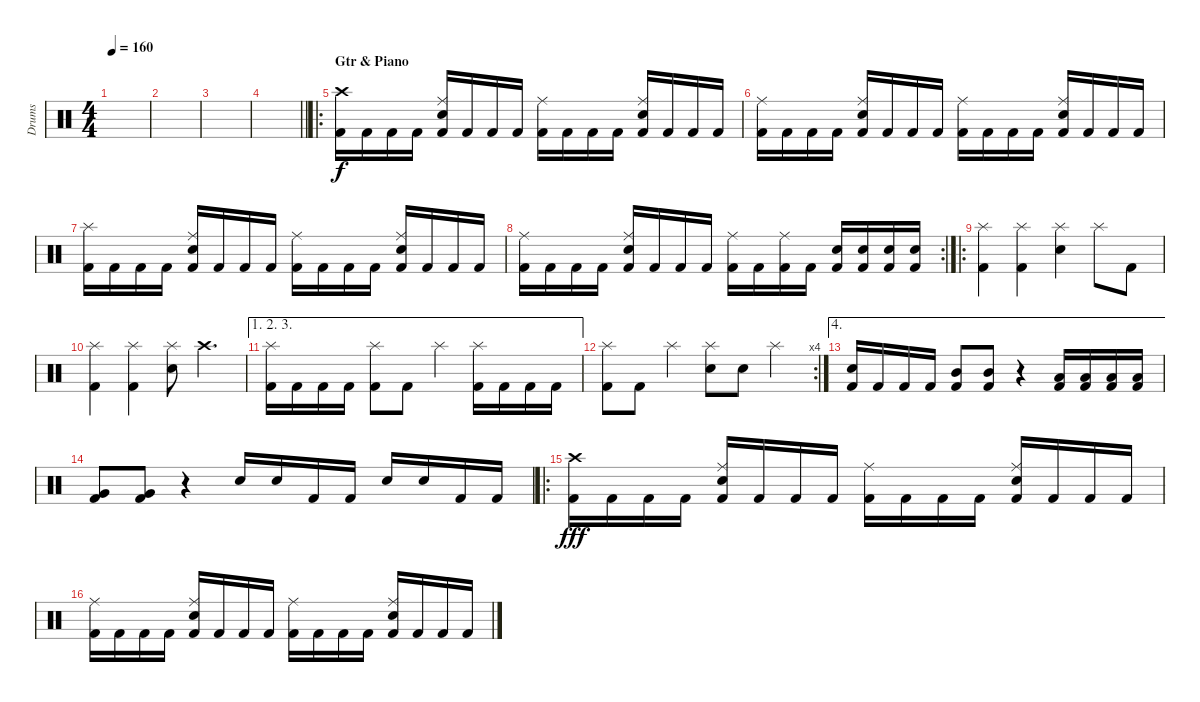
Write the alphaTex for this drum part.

\track ("Drums" "Drums") {instrument percussion}
\staff {score}
\articulation defaults
\ts (4 4)
\tempo 160
\clef neutral
\ks c
|
|
|
\barLineRight lightlight
|
\ro
\section ("" "Gtr & Piano")
("Crash high (hit)" "Kick (hit) 2").16 "Kick (hit) 2".16 "Kick (hit) 2".16 "Kick (hit) 2".16 ("Ride (middle)" "Electric Snare (hit)" "Kick (hit) 2").16 "Kick (hit) 2".16 "Kick (hit) 2".16 "Kick (hit) 2".16 ("Ride (middle)" "Kick (hit) 2").16 "Kick (hit) 2".16 "Kick (hit) 2".16 "Kick (hit) 2".16 ("Ride (middle)" "Electric Snare (hit)" "Kick (hit) 2").16 "Kick (hit) 2".16 "Kick (hit) 2".16 "Kick (hit) 2".16 |
("Ride (middle)" "Kick (hit) 2").16 "Kick (hit) 2".16 "Kick (hit) 2".16 "Kick (hit) 2".16 ("Ride (middle)" "Electric Snare (hit)" "Kick (hit) 2").16 "Kick (hit) 2".16 "Kick (hit) 2".16 "Kick (hit) 2".16 ("Ride (middle)" "Kick (hit) 2").16 "Kick (hit) 2".16 "Kick (hit) 2".16 "Kick (hit) 2".16 ("Ride (middle)" "Electric Snare (hit)" "Kick (hit) 2").16 "Kick (hit) 2".16 "Kick (hit) 2".16 "Kick (hit) 2".16 |
("Splash (hit)" "Kick (hit) 2").16 "Kick (hit) 2".16 "Kick (hit) 2".16 "Kick (hit) 2".16 ("Ride (middle)" "Electric Snare (hit)" "Kick (hit) 2").16 "Kick (hit) 2".16 "Kick (hit) 2".16 "Kick (hit) 2".16 ("Ride (middle)" "Kick (hit) 2").16 "Kick (hit) 2".16 "Kick (hit) 2".16 "Kick (hit) 2".16 ("Ride (middle)" "Electric Snare (hit)" "Kick (hit) 2").16 "Kick (hit) 2".16 "Kick (hit) 2".16 "Kick (hit) 2".16 |
\rc 2
("Ride (middle)" "Kick (hit) 2").16 "Kick (hit) 2".16 "Kick (hit) 2".16 "Kick (hit) 2".16 ("Ride (middle)" "Electric Snare (hit)" "Kick (hit) 2").16 "Kick (hit) 2".16 "Kick (hit) 2".16 "Kick (hit) 2".16 ("Ride (middle)" "Kick (hit) 2").16 "Kick (hit) 2".16 ("Ride (middle)" "Kick (hit) 2").16 "Kick (hit) 2".16 ("Electric Snare (hit)" "Kick (hit) 2").16 ("Electric Snare (hit)" "Kick (hit) 2").16 ("Electric Snare (hit)" "Kick (hit) 2").16 ("Electric Snare (hit)" "Kick (hit) 2").16 |
\ro
("Splash (hit)" "Kick (hit) 2").4{dy f} ("Splash (hit)" "Kick (hit) 2").4 ("Splash (hit)" "Electric Snare (hit)").4 "Splash (hit)".8 "Kick (hit) 2".8 |
("Splash (hit)" "Kick (hit) 2").4 ("Splash (hit)" "Kick (hit) 2").4 ("Splash (hit)" "Electric Snare (hit)").8 "Crash high (hit)".4{d} |
\ae (1 2 3)
("Splash (hit)" "Kick (hit) 2").16 "Kick (hit) 2".16 "Kick (hit) 2".16 "Kick (hit) 2".16 ("Splash (hit)" "Kick (hit) 2").8 "Kick (hit) 2".8 "Splash (hit)".4 ("Splash (hit)" "Kick (hit) 2").16 "Kick (hit) 2".16 "Kick (hit) 2".16 "Kick (hit) 2".16 |
\rc 4
("Splash (hit)" "Kick (hit) 2").8 "Kick (hit) 2".8 "Splash (hit)".4 ("Splash (hit)" "Electric Snare (hit)").8 "Electric Snare (hit)".8 "Splash (hit)".4 |
\ae 4
("Electric Snare (hit)" "Kick (hit) 2").16 "Kick (hit) 2".16 "Kick (hit) 2".16 "Kick (hit) 2".16 ("Mid Tom (hit)" "Kick (hit) 2").8 ("Mid Tom (hit)" "Kick (hit) 2").8 r.4 ("Low Tom (hit)" "Kick (hit) 2").16 ("Low Tom (hit)" "Kick (hit) 2").16 ("Low Tom (hit)" "Kick (hit) 2").16 ("Low Tom (hit)" "Kick (hit) 2").16 |
("Very Low Tom (hit)" "Kick (hit) 2").8 ("Very Low Tom (hit)" "Kick (hit) 2").8 r.4 "Electric Snare (hit)".16 "Electric Snare (hit)".16 "Kick (hit) 2".16 "Kick (hit) 2".16 "Electric Snare (hit)".16 "Electric Snare (hit)".16 "Kick (hit) 2".16 "Kick (hit) 2".16 |
\ro
("Crash high (hit)" "Kick (hit) 2").16{dy fff} "Kick (hit) 2".16 "Kick (hit) 2".16 "Kick (hit) 2".16 ("Ride (middle)" "Electric Snare (hit)" "Kick (hit) 2").16 "Kick (hit) 2".16 "Kick (hit) 2".16 "Kick (hit) 2".16 ("Ride (middle)" "Kick (hit) 2").16 "Kick (hit) 2".16 "Kick (hit) 2".16 "Kick (hit) 2".16 ("Ride (middle)" "Electric Snare (hit)" "Kick (hit) 2").16 "Kick (hit) 2".16 "Kick (hit) 2".16 "Kick (hit) 2".16 |
("Ride (middle)" "Kick (hit) 2").16 "Kick (hit) 2".16 "Kick (hit) 2".16 "Kick (hit) 2".16 ("Ride (middle)" "Electric Snare (hit)" "Kick (hit) 2").16 "Kick (hit) 2".16 "Kick (hit) 2".16 "Kick (hit) 2".16 ("Ride (middle)" "Kick (hit) 2").16 "Kick (hit) 2".16 "Kick (hit) 2".16 "Kick (hit) 2".16 ("Ride (middle)" "Electric Snare (hit)" "Kick (hit) 2").16 "Kick (hit) 2".16 "Kick (hit) 2".16 "Kick (hit) 2".16
